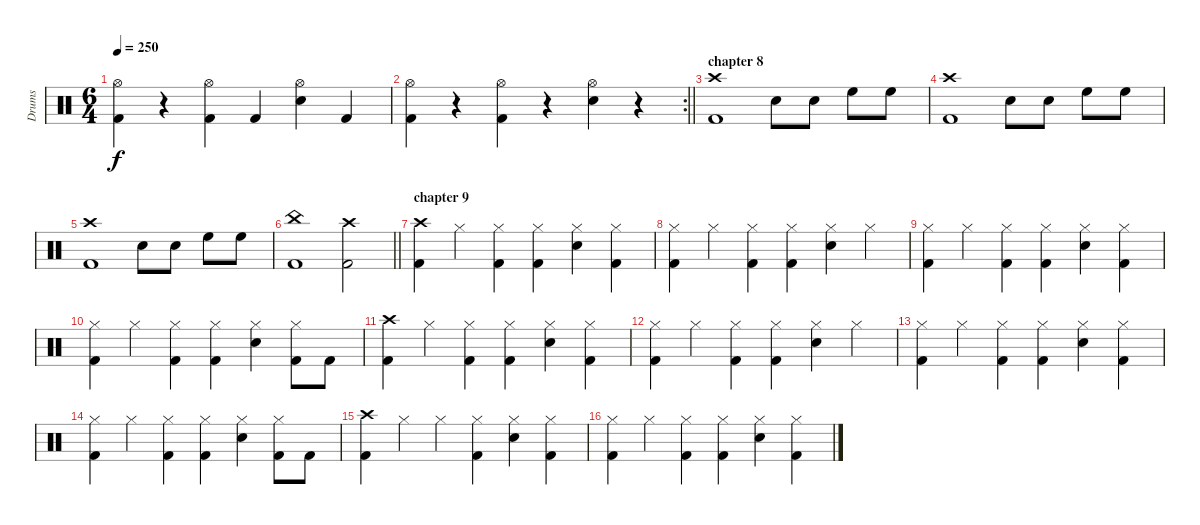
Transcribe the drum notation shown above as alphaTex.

\track ("Drums" "Drums") {instrument percussion}
\staff {score}
\articulation defaults
\ts (6 4)
\tempo 250
\clef neutral
\ks c
("Hi-Hat (open)" "Kick (hit) 2").4{dy f} r.4 ("Hi-Hat (open)" "Kick (hit) 2").4 "Kick (hit) 2".4 ("Hi-Hat (open)" "Snare (hit) 2").4 "Kick (hit) 2".4 |
\rc 2
\barLineRight lightlight
("Hi-Hat (open)" "Kick (hit) 2").4 r.4 ("Hi-Hat (open)" "Kick (hit) 2").4 r.4 ("Hi-Hat (open)" "Snare (hit) 2").4 r.4 |
\section ("" "chapter 8")
("Crash high (hit)" "Kick (hit) 2").1 "Snare (hit) 2".8 "Snare (hit) 2".8 "High Floor Tom (hit)".8 "High Floor Tom (hit)".8 |
("Crash high (hit)" "Kick (hit) 2").1 "Snare (hit) 2".8 "Snare (hit) 2".8 "High Floor Tom (hit)".8 "High Floor Tom (hit)".8 |
("Crash high (hit)" "Kick (hit) 2").1 "Snare (hit) 2".8 "Snare (hit) 2".8 "High Floor Tom (hit)".8 "High Floor Tom (hit)".8 |
\barLineRight lightlight
("China (hit)" "Kick (hit) 2").1 ("Crash high (hit)" "Kick (hit) 2").2 |
\section ("" "chapter 9")
("Crash high (hit)" "Kick (hit) 2").4 "Hi-Hat (closed)".4 ("Hi-Hat (closed)" "Kick (hit) 2").4 ("Hi-Hat (closed)" "Kick (hit) 2").4 ("Hi-Hat (closed)" "Snare (hit) 2").4 ("Hi-Hat (closed)" "Kick (hit) 2").4 |
("Hi-Hat (closed)" "Kick (hit) 2").4 "Hi-Hat (closed)".4 ("Hi-Hat (closed)" "Kick (hit) 2").4 ("Hi-Hat (closed)" "Kick (hit) 2").4 ("Hi-Hat (closed)" "Snare (hit) 2").4 "Hi-Hat (closed)".4 |
("Hi-Hat (closed)" "Kick (hit) 2").4 "Hi-Hat (closed)".4 ("Hi-Hat (closed)" "Kick (hit) 2").4 ("Hi-Hat (closed)" "Kick (hit) 2").4 ("Hi-Hat (closed)" "Snare (hit) 2").4 ("Hi-Hat (closed)" "Kick (hit) 2").4 |
("Hi-Hat (closed)" "Kick (hit) 2").4 "Hi-Hat (closed)".4 ("Hi-Hat (closed)" "Kick (hit) 2").4 ("Hi-Hat (closed)" "Kick (hit) 2").4 ("Hi-Hat (closed)" "Snare (hit) 2").4 ("Hi-Hat (closed)" "Kick (hit) 2").8 "Kick (hit) 2".8 |
("Crash high (hit)" "Kick (hit) 2").4 "Hi-Hat (closed)".4 ("Hi-Hat (closed)" "Kick (hit) 2").4 ("Hi-Hat (closed)" "Kick (hit) 2").4 ("Hi-Hat (closed)" "Snare (hit) 2").4 ("Hi-Hat (closed)" "Kick (hit) 2").4 |
("Hi-Hat (closed)" "Kick (hit) 2").4 "Hi-Hat (closed)".4 ("Hi-Hat (closed)" "Kick (hit) 2").4 ("Hi-Hat (closed)" "Kick (hit) 2").4 ("Hi-Hat (closed)" "Snare (hit) 2").4 "Hi-Hat (closed)".4 |
("Hi-Hat (closed)" "Kick (hit) 2").4 "Hi-Hat (closed)".4 ("Hi-Hat (closed)" "Kick (hit) 2").4 ("Hi-Hat (closed)" "Kick (hit) 2").4 ("Hi-Hat (closed)" "Snare (hit) 2").4 ("Hi-Hat (closed)" "Kick (hit) 2").4 |
("Hi-Hat (closed)" "Kick (hit) 2").4 "Hi-Hat (closed)".4 ("Hi-Hat (closed)" "Kick (hit) 2").4 ("Hi-Hat (closed)" "Kick (hit) 2").4 ("Hi-Hat (closed)" "Snare (hit) 2").4 ("Hi-Hat (closed)" "Kick (hit) 2").8 "Kick (hit) 2".8 |
("Crash high (hit)" "Kick (hit) 2").4 "Hi-Hat (closed)".4 "Hi-Hat (closed)".4 ("Hi-Hat (closed)" "Kick (hit) 2").4 ("Hi-Hat (closed)" "Snare (hit) 2").4 ("Hi-Hat (closed)" "Kick (hit) 2").4 |
("Hi-Hat (closed)" "Kick (hit) 2").4 "Hi-Hat (closed)".4 ("Hi-Hat (closed)" "Kick (hit) 2").4 ("Hi-Hat (closed)" "Kick (hit) 2").4 ("Hi-Hat (closed)" "Snare (hit) 2").4 ("Hi-Hat (closed)" "Kick (hit) 2").4
